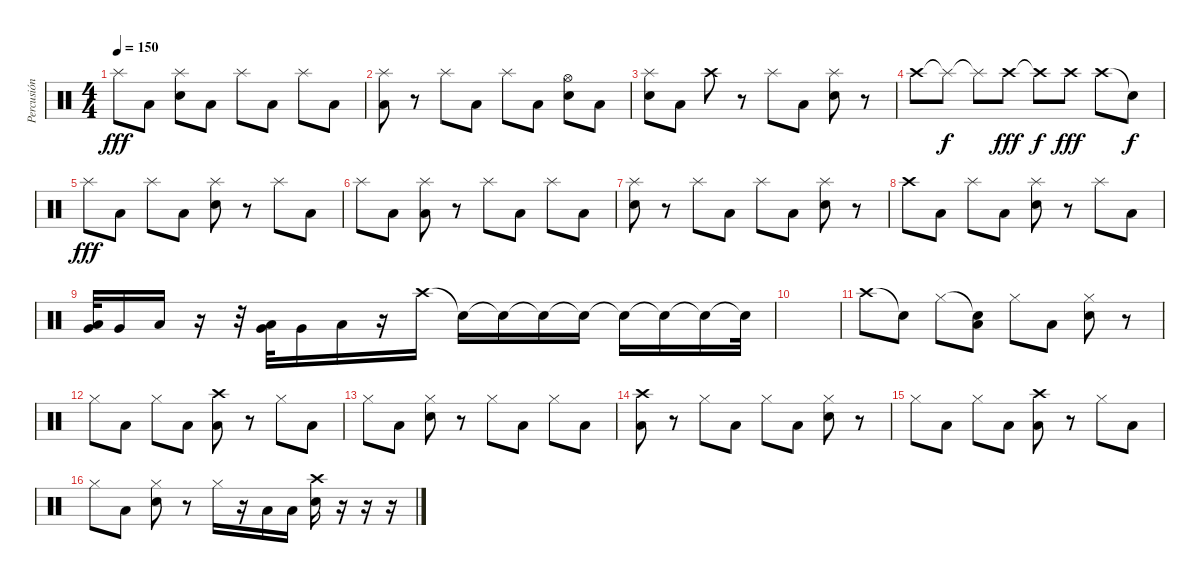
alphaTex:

\track ("Percusión" "Percusión") {instrument percussion}
\staff {score}
\articulation defaults
\ts (4 4)
\tempo 150
\clef neutral
\ks c "Splash (hit)".8{dy fff} "Low Tom (hit)".8
("Splash (hit)" "Snare (hit) 2").8 "Low Tom (hit)".8 "Splash (hit)".8 "Low Tom (hit)".8 "Splash (hit)".8 "Low Tom (hit)".8 |
("Splash (hit)" "Low Tom (hit)").8 r.8 "Splash (hit)".8 "Low Tom (hit)".8 "Splash (hit)".8 "Low Tom (hit)".8 ("Hi-Hat (open)" "Snare (hit) 2").8 "Low Tom (hit)".8 |
("Splash (hit)" "Snare (hit) 2").8 "Low Tom (hit)".8 "Crash high (hit)".8 r.8 "Splash (hit)".8 "Low Tom (hit)".8 ("Splash (hit)" "Snare (hit) 2").8 r.8 |
"Crash high (hit)".8 "Splash (hit)"{t}.8{dy f} "Splash (hit)"{t}.8 "Crash high (hit)".8{dy fff} "Crash high (hit)"{t}.8{dy f} "Crash high (hit)".8{dy fff} "Crash high (hit)".8 "Snare (hit)"{t}.8{dy f} |
"Splash (hit)".8{dy fff} "Low Tom (hit)".8 "Splash (hit)".8 "Low Tom (hit)".8 ("Splash (hit)" "Snare (hit) 2").8 r.8 "Splash (hit)".8 "Low Tom (hit)".8 |
"Splash (hit)".8 "Low Tom (hit)".8 ("Splash (hit)" "Low Tom (hit)").8 r.8 "Splash (hit)".8 "Low Tom (hit)".8 "Splash (hit)".8 "Low Tom (hit)".8 |
("Splash (hit)" "Snare (hit) 2").8 r.8 "Splash (hit)".8 "Low Tom (hit)".8 "Splash (hit)".8 "Low Tom (hit)".8 ("Splash (hit)" "Snare (hit) 2").8 r.8 |
"Crash high (hit)".8 "Low Tom (hit)".8 "Splash (hit)".8 "Low Tom (hit)".8 ("Splash (hit)" "Snare (hit) 2").8 r.8 "Splash (hit)".8 "Low Tom (hit)".8 |
("Very Low Tom (hit)" "Low Floor Tom (hit)").32 "Very Low Tom (hit)".16 "Low Tom (hit)".16 r.16 r.32 ("Very Low Tom (hit)" "Low Floor Tom (hit)").32 "Very Low Tom (hit)".16 "Low Tom (hit)".16 r.16 "Crash high (hit)".16 "Snare (hit)"{t}.16 "Snare (hit)"{t}.16 "Snare (hit)"{t}.16 "Snare (hit)"{t}.16 "Snare (hit)"{t}.16 "Snare (hit)"{t}.16 "Snare (hit)"{t}.16 "Snare (hit)"{t}.32 |
|
"Crash high (hit)".8 "Snare (hit)"{t}.8 "Hi-Hat (closed)".8 ("Snare (hit)"{t} "Low Tom (hit)").8 "Hi-Hat (closed)".8 "Low Tom (hit)".8 ("Hi-Hat (closed)" "Snare (hit) 2").8 r.8 |
"Hi-Hat (closed)".8 "Low Tom (hit)".8 "Hi-Hat (closed)".8 "Low Tom (hit)".8 ("Crash high (hit)" "Low Tom (hit)").8 r.8 "Hi-Hat (closed)".8 "Low Tom (hit)".8 |
"Hi-Hat (closed)".8 "Low Tom (hit)".8 ("Hi-Hat (closed)" "Snare (hit) 2").8 r.8 "Hi-Hat (closed)".8 "Low Tom (hit)".8 "Hi-Hat (closed)".8 "Low Tom (hit)".8 |
("Crash high (hit)" "Low Tom (hit)").8 r.8 "Hi-Hat (closed)".8 "Low Tom (hit)".8 "Hi-Hat (closed)".8 "Low Tom (hit)".8 ("Hi-Hat (closed)" "Snare (hit) 2").8 r.8 |
"Hi-Hat (closed)".8 "Low Tom (hit)".8 "Hi-Hat (closed)".8 "Low Tom (hit)".8 ("Crash high (hit)" "Low Tom (hit)").8 r.8 "Hi-Hat (closed)".8 "Low Tom (hit)".8 |
"Hi-Hat (closed)".8 "Low Tom (hit)".8 ("Hi-Hat (closed)" "Snare (hit) 2").8 r.8 "Hi-Hat (closed)".16 r.16 "Low Tom (hit)".16 "Low Tom (hit)".16 ("Crash high (hit)" "Snare (hit) 2").16 r.16 r.16 r.16
